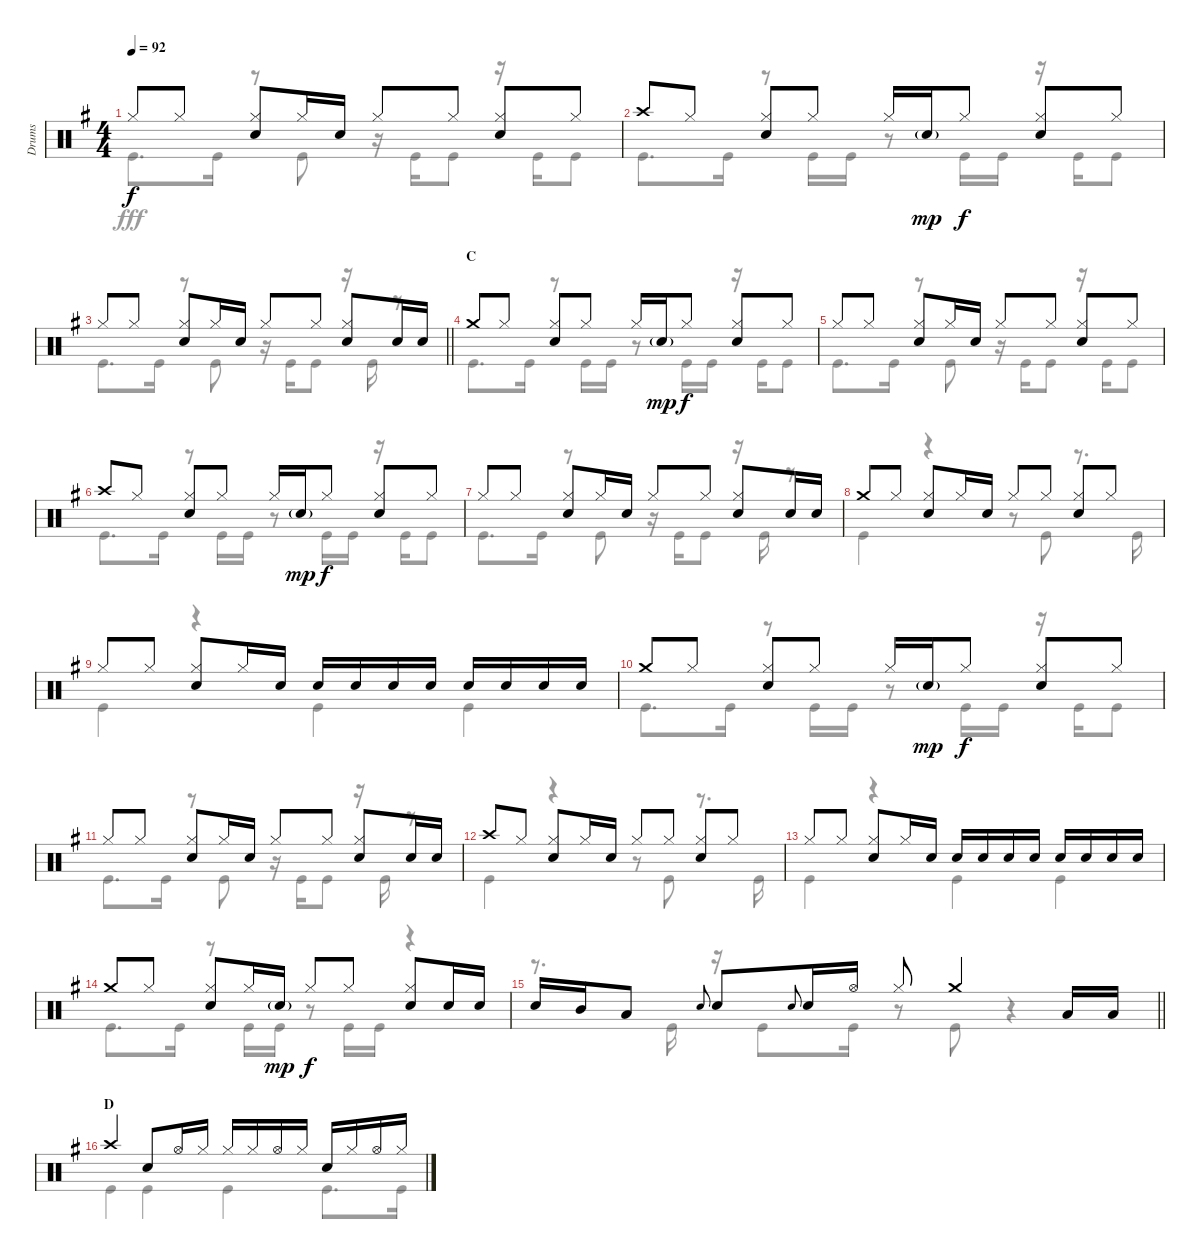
\track ("Drums" "Drums") {instrument percussion}
\staff {score}
\articulation defaults
\voice
\ts (4 4)
\tempo 92
\clef neutral
\ks g "Hi-Hat (closed)".8{dy f} "Hi-Hat (closed)".8
("Hi-Hat (closed)" "Snare (hit) 2").8 "Hi-Hat (closed)".16 "Snare (hit) 2".16 "Hi-Hat (closed)".8 "Hi-Hat (closed)".8 ("Hi-Hat (closed)" "Snare (hit) 2").8 "Hi-Hat (closed)".8 |
"Crash high (hit)".8 "Hi-Hat (closed)".8 ("Hi-Hat (closed)" "Snare (hit) 2").8 "Hi-Hat (closed)".8 "Hi-Hat (closed)".16 "Snare (hit) 2"{g}.16{dy mp} "Hi-Hat (closed)".8{dy f} ("Hi-Hat (closed)" "Snare (hit) 2").8 "Hi-Hat (closed)".8 |
\barLineRight lightlight "Hi-Hat (closed)".8 "Hi-Hat (closed)".8
("Hi-Hat (closed)" "Snare (hit) 2").8 "Hi-Hat (closed)".16 "Snare (hit) 2".16 "Hi-Hat (closed)".8 "Hi-Hat (closed)".8 ("Hi-Hat (closed)" "Snare (hit) 2").8 "Snare (hit) 2".16 "Snare (hit) 2".16 |
\section ("" "C")
"Crash medium (hit)".8 "Hi-Hat (closed)".8 ("Hi-Hat (closed)" "Snare (hit) 2").8 "Hi-Hat (closed)".8 "Hi-Hat (closed)".16 "Snare (hit) 2"{g}.16{dy mp} "Hi-Hat (closed)".8{dy f} ("Hi-Hat (closed)" "Snare (hit) 2").8 "Hi-Hat (closed)".8 |
"Hi-Hat (closed)".8 "Hi-Hat (closed)".8 ("Hi-Hat (closed)" "Snare (hit) 2").8 "Hi-Hat (closed)".16 "Snare (hit) 2".16 "Hi-Hat (closed)".8 "Hi-Hat (closed)".8 ("Hi-Hat (closed)" "Snare (hit) 2").8 "Hi-Hat (closed)".8 |
"Crash high (hit)".8 "Hi-Hat (closed)".8 ("Hi-Hat (closed)" "Snare (hit) 2").8 "Hi-Hat (closed)".8 "Hi-Hat (closed)".16 "Snare (hit) 2"{g}.16{dy mp} "Hi-Hat (closed)".8{dy f} ("Hi-Hat (closed)" "Snare (hit) 2").8 "Hi-Hat (closed)".8 |
"Hi-Hat (closed)".8 "Hi-Hat (closed)".8 ("Hi-Hat (closed)" "Snare (hit) 2").8 "Hi-Hat (closed)".16 "Snare (hit) 2".16 "Hi-Hat (closed)".8 "Hi-Hat (closed)".8 ("Hi-Hat (closed)" "Snare (hit) 2").8 "Snare (hit) 2".16 "Snare (hit) 2".16 |
"Crash medium (hit)".8 "Hi-Hat (closed)".8 ("Hi-Hat (closed)" "Snare (hit) 2").8 "Hi-Hat (closed)".16 "Snare (hit) 2".16 "Hi-Hat (closed)".8 "Hi-Hat (closed)".8 ("Hi-Hat (closed)" "Snare (hit) 2").8 "Hi-Hat (closed)".8 |
"Hi-Hat (closed)".8 "Hi-Hat (closed)".8 ("Hi-Hat (closed)" "Snare (hit) 2").8 "Hi-Hat (closed)".16 "Snare (hit) 2".16 "Snare (hit) 2".16 "Snare (hit) 2".16 "Snare (hit) 2".16 "Snare (hit) 2".16 "Snare (hit) 2".16 "Snare (hit) 2".16 "Snare (hit) 2".16 "Snare (hit) 2".16 |
"Crash medium (hit)".8 "Hi-Hat (closed)".8 ("Hi-Hat (closed)" "Snare (hit) 2").8 "Hi-Hat (closed)".8 "Hi-Hat (closed)".16 "Snare (hit) 2"{g}.16{dy mp} "Hi-Hat (closed)".8{dy f} ("Hi-Hat (closed)" "Snare (hit) 2").8 "Hi-Hat (closed)".8 |
"Hi-Hat (closed)".8 "Hi-Hat (closed)".8 ("Hi-Hat (closed)" "Snare (hit) 2").8 "Hi-Hat (closed)".16 "Snare (hit) 2".16 "Hi-Hat (closed)".8 "Hi-Hat (closed)".8 ("Hi-Hat (closed)" "Snare (hit) 2").8 "Snare (hit) 2".16 "Snare (hit) 2".16 |
"Crash high (hit)".8 "Hi-Hat (closed)".8 ("Hi-Hat (closed)" "Snare (hit) 2").8 "Hi-Hat (closed)".16 "Snare (hit) 2".16 "Hi-Hat (closed)".8 "Hi-Hat (closed)".8 ("Hi-Hat (closed)" "Snare (hit) 2").8 "Hi-Hat (closed)".8 |
"Hi-Hat (closed)".8 "Hi-Hat (closed)".8 ("Hi-Hat (closed)" "Snare (hit) 2").8 "Hi-Hat (closed)".16 "Snare (hit) 2".16 "Snare (hit) 2".16 "Snare (hit) 2".16 "Snare (hit) 2".16 "Snare (hit) 2".16 "Snare (hit) 2".16 "Snare (hit) 2".16 "Snare (hit) 2".16 "Snare (hit) 2".16 |
"Crash medium (hit)".8 "Hi-Hat (closed)".8 ("Hi-Hat (closed)" "Snare (hit) 2").8 "Hi-Hat (closed)".16 "Snare (hit) 2"{g}.16{dy mp} "Hi-Hat (closed)".8{dy f} "Hi-Hat (closed)".8 ("Hi-Hat (closed)" "Snare (hit) 2").8 "Snare (hit) 2".16 "Snare (hit) 2".16 |
\barLineRight lightlight "Snare (hit) 2".16 "Mid Tom (hit)".16 "Low Tom (hit)".8 "Snare (hit) 2".8{gr onbeat} "Snare (hit) 2".8 "Snare (hit) 2".8{gr onbeat} "Snare (hit) 2".16 "Hi-Hat (open)".16 "Hi-Hat (closed)".8 "Crash medium (hit)".4 "Low Tom (hit)".16 "Low Tom (hit)".16
|
\section ("" "D")
"Crash high (hit)".4 "Snare (hit) 2".8 "Hi-Hat (open)".16 "Hi-Hat (closed)".16 "Hi-Hat (closed)".16 "Hi-Hat (closed)".16 "Hi-Hat (open)".16 "Hi-Hat (closed)".16 "Snare (hit) 2".16 "Hi-Hat (closed)".16 "Hi-Hat (open)".16 "Hi-Hat (closed)".16
\voice
\clef neutral
\ottava regular
\simile none
\ks g "Kick (hit)".8{d dy fff} "Kick (hit)".16
r.8 "Kick (hit)".8 r.16 "Kick (hit)".16 "Kick (hit)".8 r.16 "Kick (hit)".16 "Kick (hit)".8 |
"Kick (hit)".8{d} "Kick (hit)".16 r.8 "Kick (hit)".16 "Kick (hit)".16 r.8 "Kick (hit)".16 "Kick (hit)".16 r.16 "Kick (hit)".16 "Kick (hit)".8 |
\barLineRight lightlight "Kick (hit)".8{d} "Kick (hit)".16
r.8 "Kick (hit)".8 r.16 "Kick (hit)".16 "Kick (hit)".8 r.16 "Kick (hit)".16 r.8 |
"Kick (hit)".8{d} "Kick (hit)".16 r.8 "Kick (hit)".16 "Kick (hit)".16 r.8 "Kick (hit)".16 "Kick (hit)".16 r.16 "Kick (hit)".16 "Kick (hit)".8 |
"Kick (hit)".8{d} "Kick (hit)".16 r.8 "Kick (hit)".8 r.16 "Kick (hit)".16 "Kick (hit)".8 r.16 "Kick (hit)".16 "Kick (hit)".8 |
"Kick (hit)".8{d} "Kick (hit)".16 r.8 "Kick (hit)".16 "Kick (hit)".16 r.8 "Kick (hit)".16 "Kick (hit)".16 r.16 "Kick (hit)".16 "Kick (hit)".8 |
"Kick (hit)".8{d} "Kick (hit)".16 r.8 "Kick (hit)".8 r.16 "Kick (hit)".16 "Kick (hit)".8 r.16 "Kick (hit)".16 r.8 |
"Kick (hit)".4 r.4 r.8 "Kick (hit)".8 r.8{d} "Kick (hit)".16 |
"Kick (hit)".4 r.4 "Kick (hit)".4 "Kick (hit)".4 |
"Kick (hit)".8{d} "Kick (hit)".16 r.8 "Kick (hit)".16 "Kick (hit)".16 r.8 "Kick (hit)".16 "Kick (hit)".16 r.16 "Kick (hit)".16 "Kick (hit)".8 |
"Kick (hit)".8{d} "Kick (hit)".16 r.8 "Kick (hit)".8 r.16 "Kick (hit)".16 "Kick (hit)".8 r.16 "Kick (hit)".16 r.8 |
"Kick (hit)".4 r.4 r.8 "Kick (hit)".8 r.8{d} "Kick (hit)".16 |
"Kick (hit)".4 r.4 "Kick (hit)".4 "Kick (hit)".4 |
"Kick (hit)".8{d} "Kick (hit)".16 r.8 "Kick (hit)".16 "Kick (hit)".16 r.8 "Kick (hit)".16 "Kick (hit)".16 r.4 |
\barLineRight lightlight
r.8{d} "Kick (hit)".16 r.16 "Kick (hit)".8 "Kick (hit)".16 r.8 "Kick (hit)".8 r.4 |
"Kick (hit)".4 "Kick (hit)".4 "Kick (hit)".4 "Kick (hit)".8{d} "Kick (hit)".16
